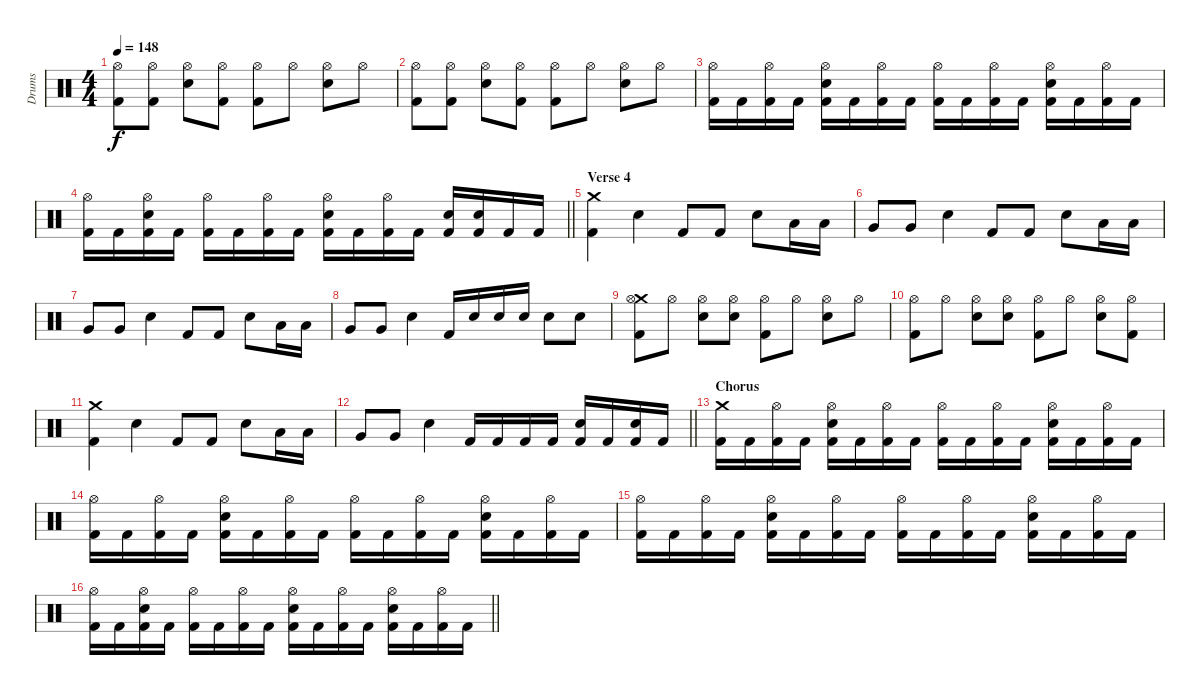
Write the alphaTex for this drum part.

\track ("Drums" "Drums") {instrument percussion}
\staff {score}
\articulation defaults
\ts (4 4)
\tempo 148
\clef neutral
\ks c
("Hi-Hat (open)" "Kick (hit) 2").8{dy f} ("Hi-Hat (open)" "Kick (hit) 2").8 ("Hi-Hat (open)" "Snare (hit) 2").8 ("Hi-Hat (open)" "Kick (hit) 2").8 ("Hi-Hat (open)" "Kick (hit) 2").8 "Hi-Hat (open)".8 ("Hi-Hat (open)" "Snare (hit) 2").8 "Hi-Hat (open)".8 |
("Hi-Hat (open)" "Kick (hit) 2").8 ("Hi-Hat (open)" "Kick (hit) 2").8 ("Hi-Hat (open)" "Snare (hit) 2").8 ("Hi-Hat (open)" "Kick (hit) 2").8 ("Hi-Hat (open)" "Kick (hit) 2").8 "Hi-Hat (open)".8 ("Hi-Hat (open)" "Snare (hit) 2").8 "Hi-Hat (open)".8 |
("Hi-Hat (open)" "Kick (hit) 2").16 "Kick (hit) 2".16 ("Hi-Hat (open)" "Kick (hit) 2").16 "Kick (hit) 2".16 ("Hi-Hat (open)" "Snare (hit) 2" "Kick (hit) 2").16 "Kick (hit) 2".16 ("Hi-Hat (open)" "Kick (hit) 2").16 "Kick (hit) 2".16 ("Hi-Hat (open)" "Kick (hit) 2").16 "Kick (hit) 2".16 ("Hi-Hat (open)" "Kick (hit) 2").16 "Kick (hit) 2".16 ("Hi-Hat (open)" "Snare (hit) 2" "Kick (hit) 2").16 "Kick (hit) 2".16 ("Hi-Hat (open)" "Kick (hit) 2").16 "Kick (hit) 2".16 |
\barLineRight lightlight
("Hi-Hat (open)" "Kick (hit) 2").16 "Kick (hit) 2".16 ("Hi-Hat (open)" "Snare (hit) 2" "Kick (hit) 2").16 "Kick (hit) 2".16 ("Hi-Hat (open)" "Kick (hit) 2").16 "Kick (hit) 2".16 ("Hi-Hat (open)" "Kick (hit) 2").16 "Kick (hit) 2".16 ("Hi-Hat (open)" "Snare (hit) 2" "Kick (hit) 2").16 "Kick (hit) 2".16 ("Hi-Hat (open)" "Kick (hit) 2").16 "Kick (hit) 2".16 ("Snare (hit) 2" "Kick (hit) 2").16 ("Snare (hit) 2" "Kick (hit) 2").16 "Kick (hit) 2".16 "Kick (hit) 2".16 |
\section ("" "Verse 4")
("Crash medium (hit)" "Kick (hit) 2").4 "Snare (hit) 2".4 "Kick (hit) 2".8 "Kick (hit) 2".8 "Snare (hit) 2".8 "Low Tom (hit)".16 "Low Tom (hit)".16 |
"Very Low Tom (hit)".8 "Very Low Tom (hit)".8 "Snare (hit) 2".4 "Kick (hit) 2".8 "Kick (hit) 2".8 "Snare (hit) 2".8 "Low Tom (hit)".16 "Low Tom (hit)".16 |
"Very Low Tom (hit)".8 "Very Low Tom (hit)".8 "Snare (hit) 2".4 "Kick (hit) 2".8 "Kick (hit) 2".8 "Snare (hit) 2".8 "Low Tom (hit)".16 "Low Tom (hit)".16 |
"Very Low Tom (hit)".8 "Very Low Tom (hit)".8 "Snare (hit) 2".4 "Kick (hit) 2".16 "Snare (hit) 2".16 "Snare (hit) 2".16 "Snare (hit) 2".16 "Snare (hit) 2".8 "Snare (hit) 2".8 |
("Crash medium (hit)" "Hi-Hat (open)" "Kick (hit) 2").8 "Hi-Hat (open)".8 ("Hi-Hat (open)" "Snare (hit) 2").8 ("Hi-Hat (open)" "Snare (hit) 2").8 ("Hi-Hat (open)" "Kick (hit) 2").8 "Hi-Hat (open)".8 ("Hi-Hat (open)" "Snare (hit) 2").8 "Hi-Hat (open)".8 |
("Hi-Hat (open)" "Kick (hit) 2").8 "Hi-Hat (open)".8 ("Hi-Hat (open)" "Snare (hit) 2").8 ("Hi-Hat (open)" "Snare (hit) 2").8 ("Hi-Hat (open)" "Kick (hit) 2").8 "Hi-Hat (open)".8 ("Hi-Hat (open)" "Snare (hit) 2").8 ("Hi-Hat (open)" "Kick (hit) 2").8 |
("Crash medium (hit)" "Kick (hit) 2").4 "Snare (hit) 2".4 "Kick (hit) 2".8 "Kick (hit) 2".8 "Snare (hit) 2".8 "Low Tom (hit)".16 "Low Tom (hit)".16 |
\barLineRight lightlight "Very Low Tom (hit)".8 "Very Low Tom (hit)".8 "Snare (hit) 2".4 "Kick (hit) 2".16 "Kick (hit) 2".16 "Kick (hit) 2".16 "Kick (hit) 2".16
("Snare (hit) 2" "Kick (hit) 2").16 "Kick (hit) 2".16 ("Snare (hit) 2" "Kick (hit) 2").16 "Kick (hit) 2".16 |
\section ("" "Chorus")
("Crash medium (hit)" "Kick (hit) 2").16 "Kick (hit) 2".16 ("Hi-Hat (open)" "Kick (hit) 2").16 "Kick (hit) 2".16 ("Hi-Hat (open)" "Snare (hit) 2" "Kick (hit) 2").16 "Kick (hit) 2".16 ("Hi-Hat (open)" "Kick (hit) 2").16 "Kick (hit) 2".16 ("Hi-Hat (open)" "Kick (hit) 2").16 "Kick (hit) 2".16 ("Hi-Hat (open)" "Kick (hit) 2").16 "Kick (hit) 2".16 ("Hi-Hat (open)" "Snare (hit) 2" "Kick (hit) 2").16 "Kick (hit) 2".16 ("Hi-Hat (open)" "Kick (hit) 2").16 "Kick (hit) 2".16 |
("Hi-Hat (open)" "Kick (hit) 2").16 "Kick (hit) 2".16 ("Hi-Hat (open)" "Kick (hit) 2").16 "Kick (hit) 2".16 ("Hi-Hat (open)" "Snare (hit) 2" "Kick (hit) 2").16 "Kick (hit) 2".16 ("Hi-Hat (open)" "Kick (hit) 2").16 "Kick (hit) 2".16 ("Hi-Hat (open)" "Kick (hit) 2").16 "Kick (hit) 2".16 ("Hi-Hat (open)" "Kick (hit) 2").16 "Kick (hit) 2".16 ("Hi-Hat (open)" "Snare (hit) 2" "Kick (hit) 2").16 "Kick (hit) 2".16 ("Hi-Hat (open)" "Kick (hit) 2").16 "Kick (hit) 2".16 |
("Hi-Hat (open)" "Kick (hit) 2").16 "Kick (hit) 2".16 ("Hi-Hat (open)" "Kick (hit) 2").16 "Kick (hit) 2".16 ("Hi-Hat (open)" "Snare (hit) 2" "Kick (hit) 2").16 "Kick (hit) 2".16 ("Hi-Hat (open)" "Kick (hit) 2").16 "Kick (hit) 2".16 ("Hi-Hat (open)" "Kick (hit) 2").16 "Kick (hit) 2".16 ("Hi-Hat (open)" "Kick (hit) 2").16 "Kick (hit) 2".16 ("Hi-Hat (open)" "Snare (hit) 2" "Kick (hit) 2").16 "Kick (hit) 2".16 ("Hi-Hat (open)" "Kick (hit) 2").16 "Kick (hit) 2".16 |
\barLineRight lightlight
("Hi-Hat (open)" "Kick (hit) 2").16 "Kick (hit) 2".16 ("Hi-Hat (open)" "Snare (hit) 2" "Kick (hit) 2").16 "Kick (hit) 2".16 ("Hi-Hat (open)" "Kick (hit) 2").16 "Kick (hit) 2".16 ("Hi-Hat (open)" "Kick (hit) 2").16 "Kick (hit) 2".16 ("Hi-Hat (open)" "Snare (hit) 2" "Kick (hit) 2").16 "Kick (hit) 2".16 ("Hi-Hat (open)" "Kick (hit) 2").16 "Kick (hit) 2".16 ("Hi-Hat (open)" "Snare (hit) 2" "Kick (hit) 2").16 "Kick (hit) 2".16 ("Hi-Hat (open)" "Kick (hit) 2").16 "Kick (hit) 2".16
